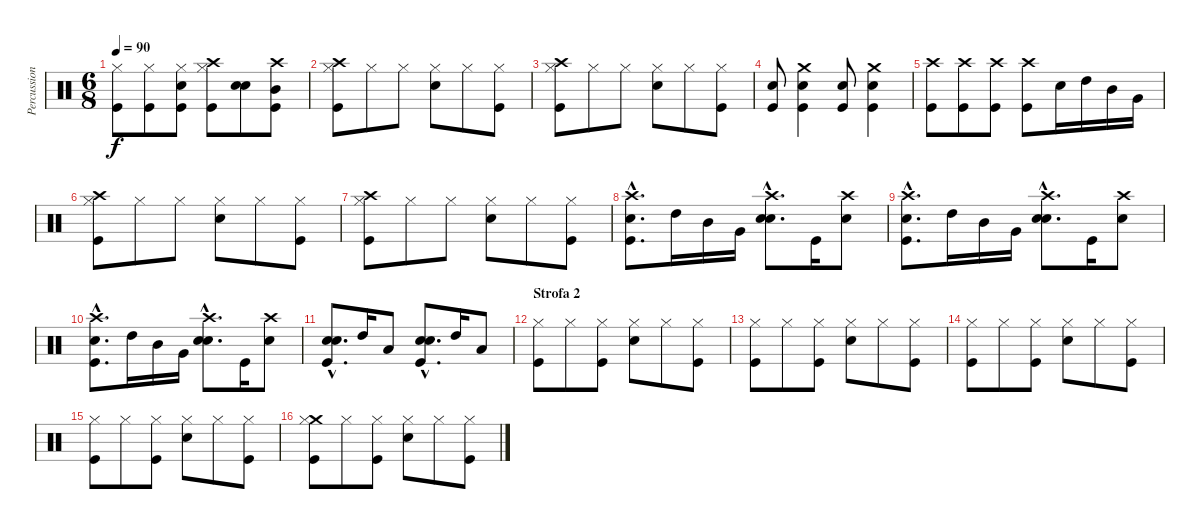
\track ("Percussioni" "Percussion") {instrument percussion}
\staff {score}
\articulation defaults
\ts (6 8)
\tempo 90
\clef neutral
\ks c
("Hi-Hat (closed)" "Kick (hit)").8{dy f} ("Hi-Hat (closed)" "Kick (hit)").8 ("Hi-Hat (closed)" "Snare (hit) 2" "Kick (hit)").8 ("Crash high (hit)" "Hi-Hat (closed)" "Kick (hit)").8 ("Snare (hit) 2" "Snare (hit) 2").8 ("Crash high (hit)" "Mid Tom (hit)" "Kick (hit)").8 |
("Crash high (hit)" "Hi-Hat (closed)" "Kick (hit)").8 "Hi-Hat (closed)".8 "Hi-Hat (closed)".8 ("Hi-Hat (closed)" "Snare (hit) 2").8 "Hi-Hat (closed)".8 ("Hi-Hat (closed)" "Kick (hit)").8 |
("Crash high (hit)" "Hi-Hat (closed)" "Kick (hit)").8 "Hi-Hat (closed)".8 "Hi-Hat (closed)".8 ("Hi-Hat (closed)" "Snare (hit) 2").8 "Hi-Hat (closed)".8 ("Hi-Hat (closed)" "Kick (hit)").8 |
("Snare (hit) 2" "Kick (hit)").8 ("Crash medium (hit)" "Snare (hit) 2" "Kick (hit)").4 ("Snare (hit) 2" "Kick (hit)").8 ("Crash medium (hit)" "Snare (hit) 2" "Kick (hit)").4 |
("Crash high (hit)" "Kick (hit)").8 ("Crash high (hit)" "Kick (hit)").8 ("Crash high (hit)" "Kick (hit)").8 ("Crash high (hit)" "Kick (hit)").8 "Snare (hit) 2".16 "High Tom (hit)".16 "Mid Tom (hit)".16 "Very Low Tom (hit)".16 |
("Crash high (hit)" "Hi-Hat (closed)" "Kick (hit)").8 "Hi-Hat (closed)".8 "Hi-Hat (closed)".8 ("Hi-Hat (closed)" "Snare (hit) 2").8 "Hi-Hat (closed)".8 ("Hi-Hat (closed)" "Kick (hit)").8 |
("Crash high (hit)" "Hi-Hat (closed)" "Kick (hit)").8 "Hi-Hat (closed)".8 "Hi-Hat (closed)".8 ("Hi-Hat (closed)" "Snare (hit) 2").8 "Hi-Hat (closed)".8 ("Hi-Hat (closed)" "Kick (hit)").8 |
("Crash high (hit)"{hac} "Snare (hit) 2"{hac} "Kick (hit)"{hac}).8{d} "High Tom (hit)".16 "Mid Tom (hit)".16 "Very Low Tom (hit)".16 ("Crash high (hit)"{hac} "Snare (hit) 2"{hac} "Snare (hit) 2"{hac}).8{d} "Kick (hit)".16 ("Crash high (hit)" "Snare (hit) 2").8 |
("Crash high (hit)"{hac} "Snare (hit) 2"{hac} "Kick (hit)"{hac}).8{d} "High Tom (hit)".16 "Mid Tom (hit)".16 "Very Low Tom (hit)".16 ("Crash high (hit)"{hac} "Snare (hit) 2"{hac} "Snare (hit) 2"{hac}).8{d} "Kick (hit)".16 ("Crash high (hit)" "Snare (hit) 2").8 |
("Crash high (hit)"{hac} "Snare (hit) 2"{hac} "Kick (hit)"{hac}).8{d} "High Tom (hit)".16 "Mid Tom (hit)".16 "Very Low Tom (hit)".16 ("Crash high (hit)"{hac} "Snare (hit) 2"{hac} "Snare (hit) 2"{hac}).8{d} "Kick (hit)".16 ("Crash high (hit)" "Snare (hit) 2").8 |
("Snare (hit) 2"{hac} "Snare (hit) 2"{hac} "Kick (hit)"{hac}).8{d} "High Tom (hit)".16 "Low Tom (hit)".8 ("Snare (hit) 2"{hac} "Snare (hit) 2"{hac} "Kick (hit)"{hac}).8{d} "High Tom (hit)".16 "Low Tom (hit)".8 |
\section ("" "Strofa 2")
("Hi-Hat (closed)" "Kick (hit)").8 "Hi-Hat (closed)".8 ("Hi-Hat (closed)" "Kick (hit)").8 ("Hi-Hat (closed)" "Snare (hit) 2").8 "Hi-Hat (closed)".8 ("Hi-Hat (closed)" "Kick (hit)").8 |
("Hi-Hat (closed)" "Kick (hit)").8 "Hi-Hat (closed)".8 ("Hi-Hat (closed)" "Kick (hit)").8 ("Hi-Hat (closed)" "Snare (hit) 2").8 "Hi-Hat (closed)".8 ("Hi-Hat (closed)" "Kick (hit)").8 |
("Hi-Hat (closed)" "Kick (hit)").8 "Hi-Hat (closed)".8 ("Hi-Hat (closed)" "Kick (hit)").8 ("Hi-Hat (closed)" "Snare (hit) 2").8 "Hi-Hat (closed)".8 ("Hi-Hat (closed)" "Kick (hit)").8 |
("Hi-Hat (closed)" "Kick (hit)").8 "Hi-Hat (closed)".8 ("Hi-Hat (closed)" "Kick (hit)").8 ("Hi-Hat (closed)" "Snare (hit) 2").8 "Hi-Hat (closed)".8 ("Hi-Hat (closed)" "Kick (hit)").8 |
("Crash medium (hit)" "Hi-Hat (closed)" "Kick (hit)").8 "Hi-Hat (closed)".8 ("Hi-Hat (closed)" "Kick (hit)").8 ("Hi-Hat (closed)" "Snare (hit) 2").8 "Hi-Hat (closed)".8 ("Hi-Hat (closed)" "Kick (hit)").8
